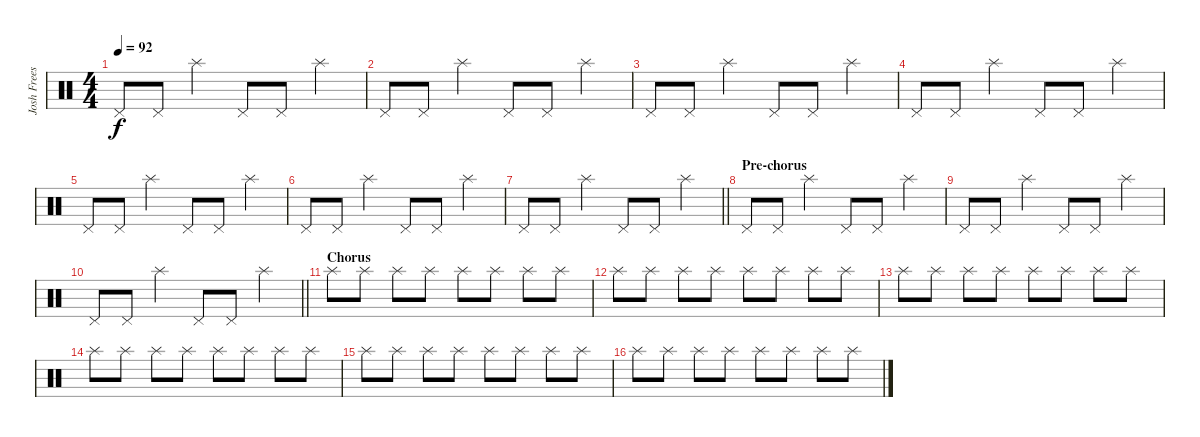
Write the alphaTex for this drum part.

\track ("Josh Freese (Studio Drummer)" "Josh Frees") {instrument percussion}
\staff {score}
\articulation defaults
\ts (4 4)
\tempo 92
\clef neutral
\ks c "Pedal Hi-Hat (hit)".8{dy f} "Pedal Hi-Hat (hit)".8 "Splash (hit)".4 "Pedal Hi-Hat (hit)".8 "Pedal Hi-Hat (hit)".8 "Splash (hit)".4
|
"Pedal Hi-Hat (hit)".8 "Pedal Hi-Hat (hit)".8 "Splash (hit)".4 "Pedal Hi-Hat (hit)".8 "Pedal Hi-Hat (hit)".8 "Splash (hit)".4 |
"Pedal Hi-Hat (hit)".8 "Pedal Hi-Hat (hit)".8 "Splash (hit)".4 "Pedal Hi-Hat (hit)".8 "Pedal Hi-Hat (hit)".8 "Splash (hit)".4 |
"Pedal Hi-Hat (hit)".8 "Pedal Hi-Hat (hit)".8 "Splash (hit)".4 "Pedal Hi-Hat (hit)".8 "Pedal Hi-Hat (hit)".8 "Splash (hit)".4 |
"Pedal Hi-Hat (hit)".8 "Pedal Hi-Hat (hit)".8 "Splash (hit)".4 "Pedal Hi-Hat (hit)".8 "Pedal Hi-Hat (hit)".8 "Splash (hit)".4 |
"Pedal Hi-Hat (hit)".8 "Pedal Hi-Hat (hit)".8 "Splash (hit)".4 "Pedal Hi-Hat (hit)".8 "Pedal Hi-Hat (hit)".8 "Splash (hit)".4 |
\barLineRight lightlight "Pedal Hi-Hat (hit)".8 "Pedal Hi-Hat (hit)".8 "Splash (hit)".4 "Pedal Hi-Hat (hit)".8 "Pedal Hi-Hat (hit)".8 "Splash (hit)".4
|
\section ("" "Pre-chorus")
"Pedal Hi-Hat (hit)".8 "Pedal Hi-Hat (hit)".8 "Splash (hit)".4 "Pedal Hi-Hat (hit)".8 "Pedal Hi-Hat (hit)".8 "Splash (hit)".4 |
"Pedal Hi-Hat (hit)".8 "Pedal Hi-Hat (hit)".8 "Splash (hit)".4 "Pedal Hi-Hat (hit)".8 "Pedal Hi-Hat (hit)".8 "Splash (hit)".4 |
\barLineRight lightlight "Pedal Hi-Hat (hit)".8 "Pedal Hi-Hat (hit)".8 "Splash (hit)".4 "Pedal Hi-Hat (hit)".8 "Pedal Hi-Hat (hit)".8 "Splash (hit)".4
|
\section ("" "Chorus")
"Splash (hit)".8 "Splash (hit)".8 "Splash (hit)".8 "Splash (hit)".8 "Splash (hit)".8 "Splash (hit)".8 "Splash (hit)".8 "Splash (hit)".8 |
"Splash (hit)".8 "Splash (hit)".8 "Splash (hit)".8 "Splash (hit)".8 "Splash (hit)".8 "Splash (hit)".8 "Splash (hit)".8 "Splash (hit)".8 |
"Splash (hit)".8 "Splash (hit)".8 "Splash (hit)".8 "Splash (hit)".8 "Splash (hit)".8 "Splash (hit)".8 "Splash (hit)".8 "Splash (hit)".8 |
"Splash (hit)".8 "Splash (hit)".8 "Splash (hit)".8 "Splash (hit)".8 "Splash (hit)".8 "Splash (hit)".8 "Splash (hit)".8 "Splash (hit)".8 |
"Splash (hit)".8 "Splash (hit)".8 "Splash (hit)".8 "Splash (hit)".8 "Splash (hit)".8 "Splash (hit)".8 "Splash (hit)".8 "Splash (hit)".8 |
"Splash (hit)".8 "Splash (hit)".8 "Splash (hit)".8 "Splash (hit)".8 "Splash (hit)".8 "Splash (hit)".8 "Splash (hit)".8 "Splash (hit)".8
